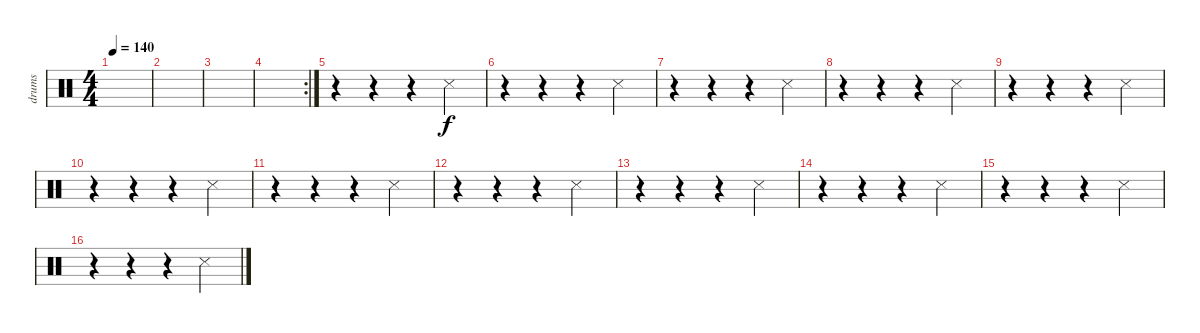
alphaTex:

\track ("drums" "drums") {instrument percussion}
\staff {score}
\articulation defaults
\ts (4 4)
\tempo 140
\clef neutral
\ks c
|
|
|
\rc 2
|
r.4 r.4 r.4 "Snare (side stick) 3".4 |
r.4 r.4 r.4 "Snare (side stick) 3".4 |
r.4 r.4 r.4 "Snare (side stick) 3".4 |
r.4 r.4 r.4 "Snare (side stick) 3".4 |
r.4 r.4 r.4 "Snare (side stick) 3".4 |
r.4 r.4 r.4 "Snare (side stick) 3".4 |
r.4 r.4 r.4 "Snare (side stick) 3".4 |
r.4 r.4 r.4 "Snare (side stick) 3".4 |
r.4 r.4 r.4 "Snare (side stick) 3".4 |
r.4 r.4 r.4 "Snare (side stick) 3".4 |
r.4 r.4 r.4 "Snare (side stick) 3".4 |
r.4 r.4 r.4 "Snare (side stick) 3".4
